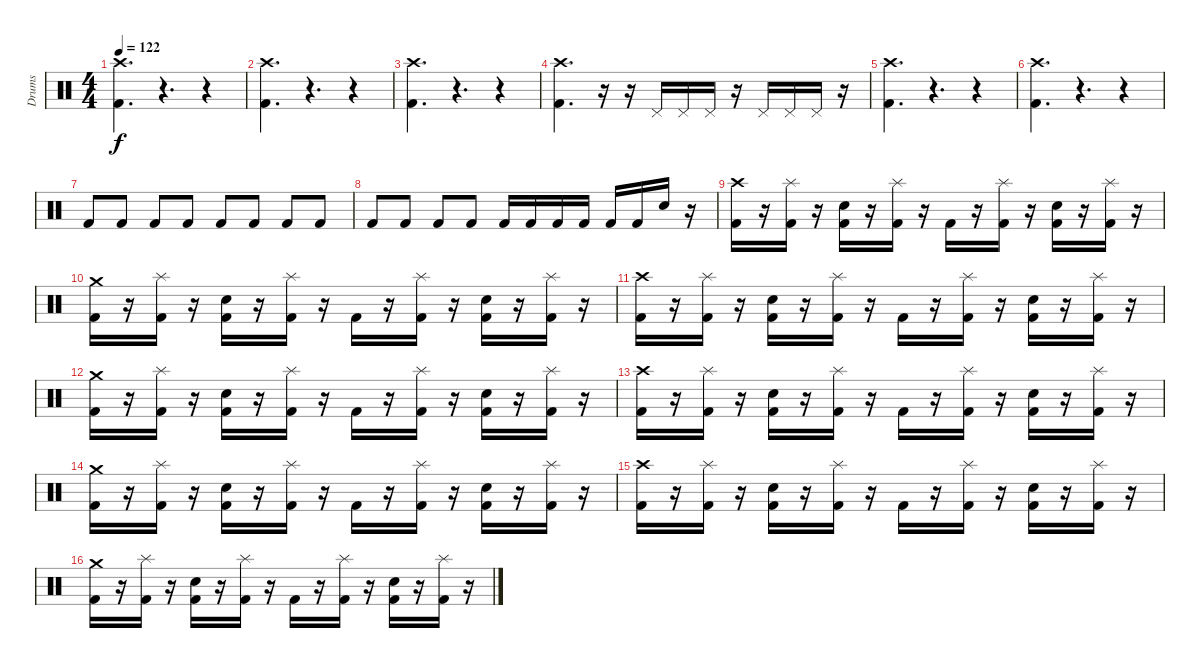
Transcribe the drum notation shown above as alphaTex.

\track ("Drums" "Drums") {instrument percussion}
\staff {score}
\articulation defaults
\ts (4 4)
\tempo 122
\clef neutral
\ks c
("Crash high (hit)" "Kick (hit) 2").4{d dy f} r.4{d} r.4 |
("Crash high (hit)" "Kick (hit) 2").4{d} r.4{d} r.4 |
("Crash high (hit)" "Kick (hit) 2").4{d} r.4{d} r.4 |
("Crash high (hit)" "Kick (hit) 2").4{d} r.16 r.16 "Pedal Hi-Hat (hit)".16 "Pedal Hi-Hat (hit)".16 "Pedal Hi-Hat (hit)".16 r.16 "Pedal Hi-Hat (hit)".16 "Pedal Hi-Hat (hit)".16 "Pedal Hi-Hat (hit)".16 r.16 |
("Crash high (hit)" "Kick (hit) 2").4{d} r.4{d} r.4 |
("Crash high (hit)" "Kick (hit) 2").4{d} r.4{d} r.4 |
"Kick (hit) 2".8 "Kick (hit) 2".8 "Kick (hit) 2".8 "Kick (hit) 2".8 "Kick (hit) 2".8 "Kick (hit) 2".8 "Kick (hit) 2".8 "Kick (hit) 2".8 |
"Kick (hit) 2".8 "Kick (hit) 2".8 "Kick (hit) 2".8 "Kick (hit) 2".8 "Kick (hit) 2".16 "Kick (hit) 2".16 "Kick (hit) 2".16 "Kick (hit) 2".16 "Kick (hit) 2".16 "Kick (hit) 2".16 "Snare (hit) 2".16 r.16 |
("Crash high (hit)" "Kick (hit) 2").16 r.16 ("Splash (hit)" "Kick (hit) 2").16 r.16 ("Snare (hit) 2" "Kick (hit) 2").16 r.16 ("Splash (hit)" "Kick (hit) 2").16 r.16 "Kick (hit) 2".16 r.16 ("Splash (hit)" "Kick (hit) 2").16 r.16 ("Snare (hit) 2" "Kick (hit) 2").16 r.16 ("Splash (hit)" "Kick (hit) 2").16 r.16 |
("Crash medium (hit)" "Kick (hit) 2").16 r.16 ("Splash (hit)" "Kick (hit) 2").16 r.16 ("Snare (hit) 2" "Kick (hit) 2").16 r.16 ("Splash (hit)" "Kick (hit) 2").16 r.16 "Kick (hit) 2".16 r.16 ("Splash (hit)" "Kick (hit) 2").16 r.16 ("Snare (hit) 2" "Kick (hit) 2").16 r.16 ("Splash (hit)" "Kick (hit) 2").16 r.16 |
("Crash high (hit)" "Kick (hit) 2").16 r.16 ("Splash (hit)" "Kick (hit) 2").16 r.16 ("Snare (hit) 2" "Kick (hit) 2").16 r.16 ("Splash (hit)" "Kick (hit) 2").16 r.16 "Kick (hit) 2".16 r.16 ("Splash (hit)" "Kick (hit) 2").16 r.16 ("Snare (hit) 2" "Kick (hit) 2").16 r.16 ("Splash (hit)" "Kick (hit) 2").16 r.16 |
("Crash medium (hit)" "Kick (hit) 2").16 r.16 ("Splash (hit)" "Kick (hit) 2").16 r.16 ("Snare (hit) 2" "Kick (hit) 2").16 r.16 ("Splash (hit)" "Kick (hit) 2").16 r.16 "Kick (hit) 2".16 r.16 ("Splash (hit)" "Kick (hit) 2").16 r.16 ("Snare (hit) 2" "Kick (hit) 2").16 r.16 ("Splash (hit)" "Kick (hit) 2").16 r.16 |
("Crash high (hit)" "Kick (hit) 2").16 r.16 ("Splash (hit)" "Kick (hit) 2").16 r.16 ("Snare (hit) 2" "Kick (hit) 2").16 r.16 ("Splash (hit)" "Kick (hit) 2").16 r.16 "Kick (hit) 2".16 r.16 ("Splash (hit)" "Kick (hit) 2").16 r.16 ("Snare (hit) 2" "Kick (hit) 2").16 r.16 ("Splash (hit)" "Kick (hit) 2").16 r.16 |
("Crash medium (hit)" "Kick (hit) 2").16 r.16 ("Splash (hit)" "Kick (hit) 2").16 r.16 ("Snare (hit) 2" "Kick (hit) 2").16 r.16 ("Splash (hit)" "Kick (hit) 2").16 r.16 "Kick (hit) 2".16 r.16 ("Splash (hit)" "Kick (hit) 2").16 r.16 ("Snare (hit) 2" "Kick (hit) 2").16 r.16 ("Splash (hit)" "Kick (hit) 2").16 r.16 |
("Crash high (hit)" "Kick (hit) 2").16 r.16 ("Splash (hit)" "Kick (hit) 2").16 r.16 ("Snare (hit) 2" "Kick (hit) 2").16 r.16 ("Splash (hit)" "Kick (hit) 2").16 r.16 "Kick (hit) 2".16 r.16 ("Splash (hit)" "Kick (hit) 2").16 r.16 ("Snare (hit) 2" "Kick (hit) 2").16 r.16 ("Splash (hit)" "Kick (hit) 2").16 r.16 |
("Crash medium (hit)" "Kick (hit) 2").16 r.16 ("Splash (hit)" "Kick (hit) 2").16 r.16 ("Snare (hit) 2" "Kick (hit) 2").16 r.16 ("Splash (hit)" "Kick (hit) 2").16 r.16 "Kick (hit) 2".16 r.16 ("Splash (hit)" "Kick (hit) 2").16 r.16 ("Snare (hit) 2" "Kick (hit) 2").16 r.16 ("Splash (hit)" "Kick (hit) 2").16 r.16
